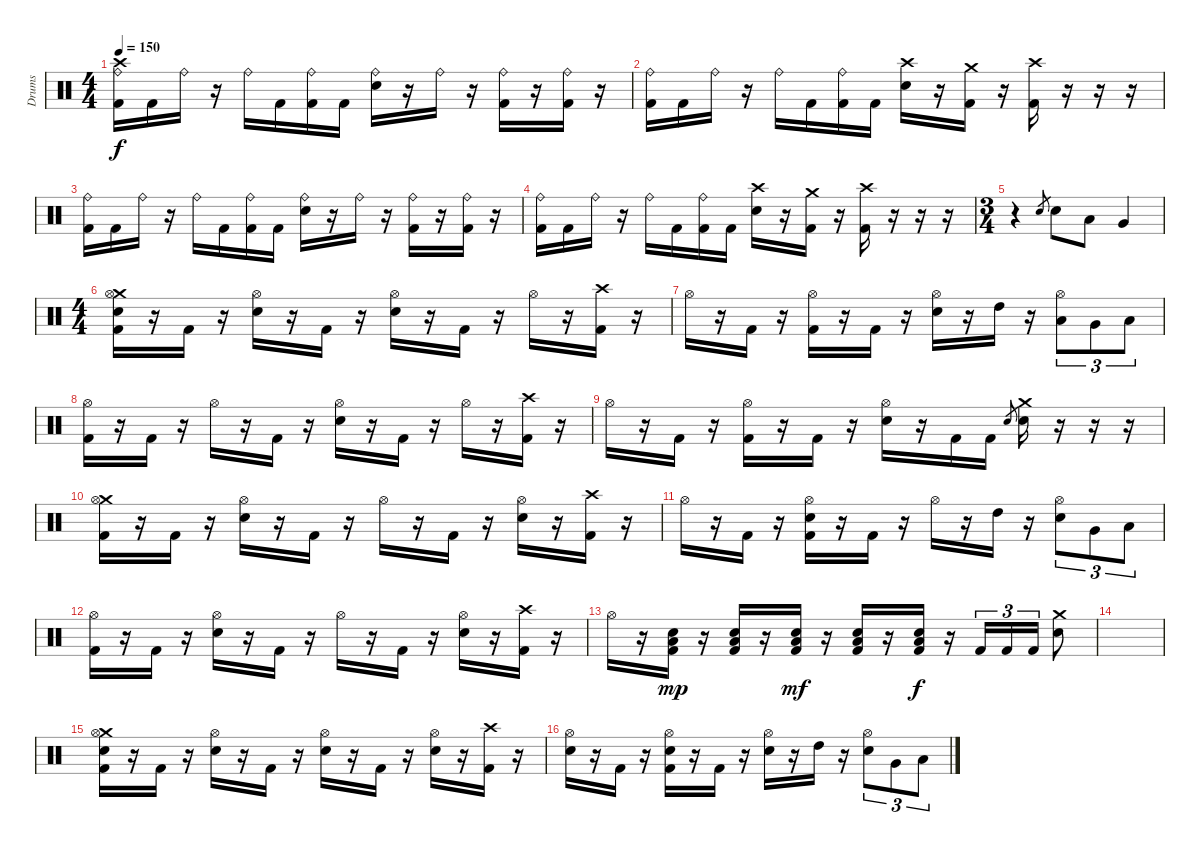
\track ("Drums" "Drums") {instrument percussion}
\staff {score}
\articulation defaults
\ts (4 4)
\tempo 150
\clef neutral
\ks c
("Crash high (hit)" "Ride (bell)" "Kick (hit) 2").16{dy f} "Kick (hit) 2".16 "Ride (bell)".16 r.16 "Ride (bell)".16 "Kick (hit) 2".16 ("Ride (bell)" "Kick (hit) 2").16 "Kick (hit) 2".16 ("Ride (bell)" "Electric Snare (hit)").16 r.16 "Ride (bell)".16 r.16 ("Ride (bell)" "Kick (hit) 2").16 r.16 ("Ride (bell)" "Kick (hit) 2").16 r.16 |
("Ride (bell)" "Kick (hit) 2").16 "Kick (hit) 2".16 "Ride (bell)".16 r.16 "Ride (bell)".16 "Kick (hit) 2".16 ("Ride (bell)" "Kick (hit) 2").16 "Kick (hit) 2".16 ("Crash high (hit)" "Electric Snare (hit)").16 r.16 ("Crash medium (hit)" "Kick (hit) 2").16 r.16 ("Crash high (hit)" "Kick (hit) 2").16 r.16 r.16 r.16 |
("Ride (bell)" "Kick (hit) 2").16 "Kick (hit) 2".16 "Ride (bell)".16 r.16 "Ride (bell)".16 "Kick (hit) 2".16 ("Ride (bell)" "Kick (hit) 2").16 "Kick (hit) 2".16 ("Ride (bell)" "Electric Snare (hit)").16 r.16 "Ride (bell)".16 r.16 ("Ride (bell)" "Kick (hit) 2").16 r.16 ("Ride (bell)" "Kick (hit) 2").16 r.16 |
("Ride (bell)" "Kick (hit) 2").16 "Kick (hit) 2".16 "Ride (bell)".16 r.16 "Ride (bell)".16 "Kick (hit) 2".16 ("Ride (bell)" "Kick (hit) 2").16 "Kick (hit) 2".16 ("Crash high (hit)" "Electric Snare (hit)").16 r.16 ("Crash medium (hit)" "Kick (hit) 2").16 r.16 ("Crash high (hit)" "Kick (hit) 2").16 r.16 r.16 r.16 |
\ts (3 4)
r.4 "Electric Snare (hit)".8{gr} "Electric Snare (hit)".8 "Low Tom (hit)".8 "Very Low Tom (hit)".4 |
\ts (4 4)
("Crash medium (hit)" "Hi-Hat (open)" "Electric Snare (hit)" "Kick (hit) 2").16 r.16 "Kick (hit) 2".16 r.16 ("Hi-Hat (open)" "Electric Snare (hit)").16 r.16 "Kick (hit) 2".16 r.16 ("Hi-Hat (open)" "Electric Snare (hit)").16 r.16 "Kick (hit) 2".16 r.16 "Hi-Hat (open)".16 r.16 ("Crash high (hit)" "Kick (hit) 2").16 r.16 |
"Hi-Hat (open)".16 r.16 "Kick (hit) 2".16 r.16 ("Hi-Hat (open)" "Kick (hit) 2").16 r.16 "Kick (hit) 2".16 r.16 ("Hi-Hat (open)" "Electric Snare (hit)").16 r.16 "High Tom (hit)".16 r.16 ("Hi-Hat (open)" "Low Tom (hit)").8{tu (3 2)} "Very Low Tom (hit)".8{tu (3 2)} "Low Floor Tom (hit)".8{tu (3 2)} |
("Hi-Hat (open)" "Kick (hit) 2").16 r.16 "Kick (hit) 2".16 r.16 "Hi-Hat (open)".16 r.16 "Kick (hit) 2".16 r.16 ("Hi-Hat (open)" "Electric Snare (hit)").16 r.16 "Kick (hit) 2".16 r.16 "Hi-Hat (open)".16 r.16 ("Crash high (hit)" "Kick (hit) 2").16 r.16 |
"Hi-Hat (open)".16 r.16 "Kick (hit) 2".16 r.16 ("Hi-Hat (open)" "Kick (hit) 2").16 r.16 "Kick (hit) 2".16 r.16 ("Hi-Hat (open)" "Electric Snare (hit)").16 r.16 "Kick (hit) 2".16 "Kick (hit) 2".16 "Electric Snare (hit)".8{gr} ("Crash medium (hit)" "Electric Snare (hit)").16 r.16 r.16 r.16 |
("Crash medium (hit)" "Hi-Hat (open)" "Kick (hit) 2").16 r.16 "Kick (hit) 2".16 r.16 ("Hi-Hat (open)" "Electric Snare (hit)").16 r.16 "Kick (hit) 2".16 r.16 "Hi-Hat (open)".16 r.16 "Kick (hit) 2".16 r.16 ("Hi-Hat (open)" "Electric Snare (hit)").16 r.16 ("Crash high (hit)" "Kick (hit) 2").16 r.16 |
"Hi-Hat (open)".16 r.16 "Kick (hit) 2".16 r.16 ("Hi-Hat (open)" "Electric Snare (hit)" "Kick (hit) 2").16 r.16 "Kick (hit) 2".16 r.16 "Hi-Hat (open)".16 r.16 "High Tom (hit)".16 r.16 ("Hi-Hat (open)" "Electric Snare (hit)").8{tu (3 2)} "Very Low Tom (hit)".8{tu (3 2)} "Low Floor Tom (hit)".8{tu (3 2)} |
("Hi-Hat (open)" "Kick (hit) 2").16 r.16 "Kick (hit) 2".16 r.16 ("Hi-Hat (open)" "Electric Snare (hit)").16 r.16 "Kick (hit) 2".16 r.16 "Hi-Hat (open)".16 r.16 "Kick (hit) 2".16 r.16 ("Hi-Hat (open)" "Electric Snare (hit)").16 r.16 ("Crash high (hit)" "Kick (hit) 2").16 r.16 |
"Hi-Hat (open)".16 r.16 ("Low Tom (hit)" "Kick (hit) 2" "Electric Snare (hit)").16{dy mp} r.16 ("Low Tom (hit)" "Kick (hit) 2" "Electric Snare (hit)").16 r.16 ("Low Tom (hit)" "Kick (hit) 2" "Electric Snare (hit)").16{dy mf} r.16 ("Low Tom (hit)" "Electric Snare (hit)" "Kick (hit) 2").16 r.16 ("Low Tom (hit)" "Kick (hit) 2" "Electric Snare (hit)").16{dy f} r.16 "Kick (hit) 2".16{tu (3 2)} "Kick (hit) 2".16{tu (3 2)} "Kick (hit) 2".16{tu (3 2)} ("Crash medium (hit)" "Electric Snare (hit)").8 |
|
("Crash medium (hit)" "Hi-Hat (open)" "Electric Snare (hit)" "Kick (hit) 2").16 r.16 "Kick (hit) 2".16 r.16 ("Hi-Hat (open)" "Electric Snare (hit)").16 r.16 "Kick (hit) 2".16 r.16 ("Hi-Hat (open)" "Electric Snare (hit)").16 r.16 "Kick (hit) 2".16 r.16 ("Hi-Hat (open)" "Electric Snare (hit)").16 r.16 ("Crash high (hit)" "Kick (hit) 2").16 r.16 |
("Hi-Hat (open)" "Electric Snare (hit)").16 r.16 "Kick (hit) 2".16 r.16 ("Hi-Hat (open)" "Electric Snare (hit)" "Kick (hit) 2").16 r.16 "Kick (hit) 2".16 r.16 ("Hi-Hat (open)" "Electric Snare (hit)").16 r.16 "High Tom (hit)".16 r.16 ("Hi-Hat (open)" "Electric Snare (hit)").8{tu (3 2)} "Very Low Tom (hit)".8{tu (3 2)} "Low Floor Tom (hit)".8{tu (3 2)}
